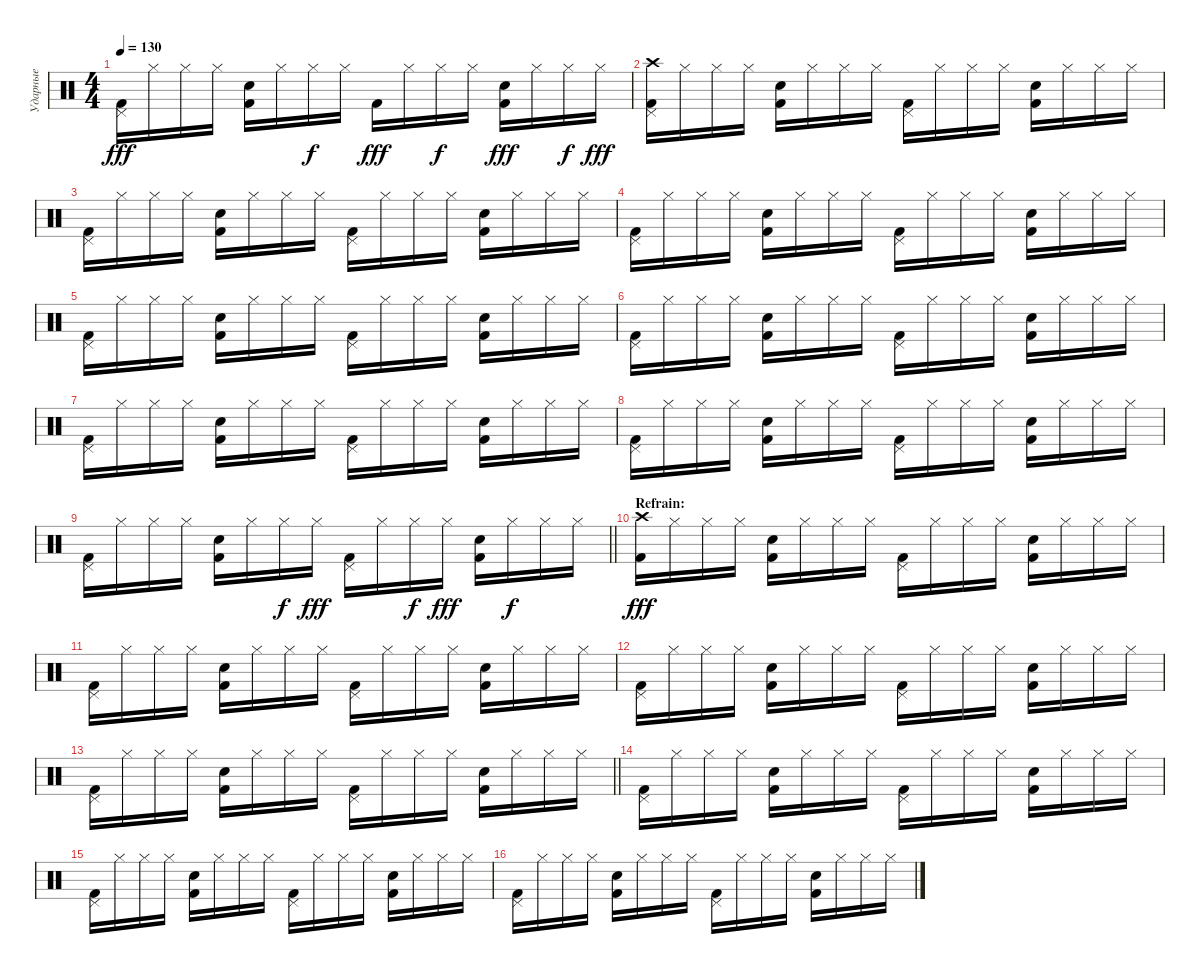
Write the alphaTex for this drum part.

\track ("Ударные" "Ударные") {instrument percussion}
\staff {score}
\articulation defaults
\ts (4 4)
\tempo 130
\clef neutral
\ks c
("Pedal Hi-Hat (hit)" "Kick (hit) 2").16{dy fff} "Hi-Hat (closed)".16 "Hi-Hat (closed)".16 "Hi-Hat (closed)".16 ("Snare (hit) 2" "Kick (hit) 2").16 "Hi-Hat (closed)".16 "Hi-Hat (closed)".16{dy f} "Hi-Hat (closed)".16 "Kick (hit) 2".16{dy fff} "Hi-Hat (closed)".16 "Hi-Hat (closed)".16{dy f} "Hi-Hat (closed)".16 ("Snare (hit) 2" "Kick (hit) 2").16{dy fff} "Hi-Hat (closed)".16 "Hi-Hat (closed)".16{dy f} "Hi-Hat (closed)".16{dy fff} |
("Pedal Hi-Hat (hit)" "Crash high (hit)" "Kick (hit) 2").16 "Hi-Hat (closed)".16 "Hi-Hat (closed)".16 "Hi-Hat (closed)".16 ("Snare (hit) 2" "Kick (hit) 2").16 "Hi-Hat (closed)".16 "Hi-Hat (closed)".16 "Hi-Hat (closed)".16 ("Pedal Hi-Hat (hit)" "Kick (hit) 2").16 "Hi-Hat (closed)".16 "Hi-Hat (closed)".16 "Hi-Hat (closed)".16 ("Snare (hit) 2" "Kick (hit) 2").16 "Hi-Hat (closed)".16 "Hi-Hat (closed)".16 "Hi-Hat (closed)".16 |
("Pedal Hi-Hat (hit)" "Kick (hit) 2").16 "Hi-Hat (closed)".16 "Hi-Hat (closed)".16 "Hi-Hat (closed)".16 ("Snare (hit) 2" "Kick (hit) 2").16 "Hi-Hat (closed)".16 "Hi-Hat (closed)".16 "Hi-Hat (closed)".16 ("Pedal Hi-Hat (hit)" "Kick (hit) 2").16 "Hi-Hat (closed)".16 "Hi-Hat (closed)".16 "Hi-Hat (closed)".16 ("Snare (hit) 2" "Kick (hit) 2").16 "Hi-Hat (closed)".16 "Hi-Hat (closed)".16 "Hi-Hat (closed)".16 |
("Pedal Hi-Hat (hit)" "Kick (hit) 2").16 "Hi-Hat (closed)".16 "Hi-Hat (closed)".16 "Hi-Hat (closed)".16 ("Snare (hit) 2" "Kick (hit) 2").16 "Hi-Hat (closed)".16 "Hi-Hat (closed)".16 "Hi-Hat (closed)".16 ("Pedal Hi-Hat (hit)" "Kick (hit) 2").16 "Hi-Hat (closed)".16 "Hi-Hat (closed)".16 "Hi-Hat (closed)".16 ("Snare (hit) 2" "Kick (hit) 2").16 "Hi-Hat (closed)".16 "Hi-Hat (closed)".16 "Hi-Hat (closed)".16 |
("Pedal Hi-Hat (hit)" "Kick (hit) 2").16 "Hi-Hat (closed)".16 "Hi-Hat (closed)".16 "Hi-Hat (closed)".16 ("Snare (hit) 2" "Kick (hit) 2").16 "Hi-Hat (closed)".16 "Hi-Hat (closed)".16 "Hi-Hat (closed)".16 ("Pedal Hi-Hat (hit)" "Kick (hit) 2").16 "Hi-Hat (closed)".16 "Hi-Hat (closed)".16 "Hi-Hat (closed)".16 ("Snare (hit) 2" "Kick (hit) 2").16 "Hi-Hat (closed)".16 "Hi-Hat (closed)".16 "Hi-Hat (closed)".16 |
("Pedal Hi-Hat (hit)" "Kick (hit) 2").16 "Hi-Hat (closed)".16 "Hi-Hat (closed)".16 "Hi-Hat (closed)".16 ("Snare (hit) 2" "Kick (hit) 2").16 "Hi-Hat (closed)".16 "Hi-Hat (closed)".16 "Hi-Hat (closed)".16 ("Pedal Hi-Hat (hit)" "Kick (hit) 2").16 "Hi-Hat (closed)".16 "Hi-Hat (closed)".16 "Hi-Hat (closed)".16 ("Snare (hit) 2" "Kick (hit) 2").16 "Hi-Hat (closed)".16 "Hi-Hat (closed)".16 "Hi-Hat (closed)".16 |
("Pedal Hi-Hat (hit)" "Kick (hit) 2").16 "Hi-Hat (closed)".16 "Hi-Hat (closed)".16 "Hi-Hat (closed)".16 ("Snare (hit) 2" "Kick (hit) 2").16 "Hi-Hat (closed)".16 "Hi-Hat (closed)".16 "Hi-Hat (closed)".16 ("Pedal Hi-Hat (hit)" "Kick (hit) 2").16 "Hi-Hat (closed)".16 "Hi-Hat (closed)".16 "Hi-Hat (closed)".16 ("Snare (hit) 2" "Kick (hit) 2").16 "Hi-Hat (closed)".16 "Hi-Hat (closed)".16 "Hi-Hat (closed)".16 |
("Pedal Hi-Hat (hit)" "Kick (hit) 2").16 "Hi-Hat (closed)".16 "Hi-Hat (closed)".16 "Hi-Hat (closed)".16 ("Snare (hit) 2" "Kick (hit) 2").16 "Hi-Hat (closed)".16 "Hi-Hat (closed)".16 "Hi-Hat (closed)".16 ("Pedal Hi-Hat (hit)" "Kick (hit) 2").16 "Hi-Hat (closed)".16 "Hi-Hat (closed)".16 "Hi-Hat (closed)".16 ("Snare (hit) 2" "Kick (hit) 2").16 "Hi-Hat (closed)".16 "Hi-Hat (closed)".16 "Hi-Hat (closed)".16 |
\barLineRight lightlight
("Pedal Hi-Hat (hit)" "Kick (hit) 2").16 "Hi-Hat (closed)".16 "Hi-Hat (closed)".16 "Hi-Hat (closed)".16 ("Snare (hit) 2" "Kick (hit) 2").16 "Hi-Hat (closed)".16 "Hi-Hat (closed)".16{dy f} "Hi-Hat (closed)".16{dy fff} ("Pedal Hi-Hat (hit)" "Kick (hit) 2").16 "Hi-Hat (closed)".16 "Hi-Hat (closed)".16{dy f} "Hi-Hat (closed)".16{dy fff} ("Snare (hit) 2" "Kick (hit) 2").16 "Hi-Hat (closed)".16{dy f} "Hi-Hat (closed)".16 "Hi-Hat (closed)".16 |
\section ("" "Refrain:")
("Crash high (hit)" "Kick (hit) 2").16{dy fff} "Hi-Hat (closed)".16 "Hi-Hat (closed)".16 "Hi-Hat (closed)".16 ("Snare (hit) 2" "Kick (hit) 2").16 "Hi-Hat (closed)".16 "Hi-Hat (closed)".16 "Hi-Hat (closed)".16 ("Pedal Hi-Hat (hit)" "Kick (hit) 2").16 "Hi-Hat (closed)".16 "Hi-Hat (closed)".16 "Hi-Hat (closed)".16 ("Snare (hit) 2" "Kick (hit) 2").16 "Hi-Hat (closed)".16 "Hi-Hat (closed)".16 "Hi-Hat (closed)".16 |
("Pedal Hi-Hat (hit)" "Kick (hit) 2").16 "Hi-Hat (closed)".16 "Hi-Hat (closed)".16 "Hi-Hat (closed)".16 ("Snare (hit) 2" "Kick (hit) 2").16 "Hi-Hat (closed)".16 "Hi-Hat (closed)".16 "Hi-Hat (closed)".16 ("Pedal Hi-Hat (hit)" "Kick (hit) 2").16 "Hi-Hat (closed)".16 "Hi-Hat (closed)".16 "Hi-Hat (closed)".16 ("Snare (hit) 2" "Kick (hit) 2").16 "Hi-Hat (closed)".16 "Hi-Hat (closed)".16 "Hi-Hat (closed)".16 |
("Pedal Hi-Hat (hit)" "Kick (hit) 2").16 "Hi-Hat (closed)".16 "Hi-Hat (closed)".16 "Hi-Hat (closed)".16 ("Snare (hit) 2" "Kick (hit) 2").16 "Hi-Hat (closed)".16 "Hi-Hat (closed)".16 "Hi-Hat (closed)".16 ("Pedal Hi-Hat (hit)" "Kick (hit) 2").16 "Hi-Hat (closed)".16 "Hi-Hat (closed)".16 "Hi-Hat (closed)".16 ("Snare (hit) 2" "Kick (hit) 2").16 "Hi-Hat (closed)".16 "Hi-Hat (closed)".16 "Hi-Hat (closed)".16 |
\barLineRight lightlight
("Pedal Hi-Hat (hit)" "Kick (hit) 2").16 "Hi-Hat (closed)".16 "Hi-Hat (closed)".16 "Hi-Hat (closed)".16 ("Snare (hit) 2" "Kick (hit) 2").16 "Hi-Hat (closed)".16 "Hi-Hat (closed)".16 "Hi-Hat (closed)".16 ("Pedal Hi-Hat (hit)" "Kick (hit) 2").16 "Hi-Hat (closed)".16 "Hi-Hat (closed)".16 "Hi-Hat (closed)".16 ("Snare (hit) 2" "Kick (hit) 2").16 "Hi-Hat (closed)".16 "Hi-Hat (closed)".16 "Hi-Hat (closed)".16 |
("Pedal Hi-Hat (hit)" "Kick (hit) 2").16 "Hi-Hat (closed)".16 "Hi-Hat (closed)".16 "Hi-Hat (closed)".16 ("Snare (hit) 2" "Kick (hit) 2").16 "Hi-Hat (closed)".16 "Hi-Hat (closed)".16 "Hi-Hat (closed)".16 ("Pedal Hi-Hat (hit)" "Kick (hit) 2").16 "Hi-Hat (closed)".16 "Hi-Hat (closed)".16 "Hi-Hat (closed)".16 ("Snare (hit) 2" "Kick (hit) 2").16 "Hi-Hat (closed)".16 "Hi-Hat (closed)".16 "Hi-Hat (closed)".16 |
("Pedal Hi-Hat (hit)" "Kick (hit) 2").16 "Hi-Hat (closed)".16 "Hi-Hat (closed)".16 "Hi-Hat (closed)".16 ("Snare (hit) 2" "Kick (hit) 2").16 "Hi-Hat (closed)".16 "Hi-Hat (closed)".16 "Hi-Hat (closed)".16 ("Pedal Hi-Hat (hit)" "Kick (hit) 2").16 "Hi-Hat (closed)".16 "Hi-Hat (closed)".16 "Hi-Hat (closed)".16 ("Snare (hit) 2" "Kick (hit) 2").16 "Hi-Hat (closed)".16 "Hi-Hat (closed)".16 "Hi-Hat (closed)".16 |
("Pedal Hi-Hat (hit)" "Kick (hit) 2").16 "Hi-Hat (closed)".16 "Hi-Hat (closed)".16 "Hi-Hat (closed)".16 ("Snare (hit) 2" "Kick (hit) 2").16 "Hi-Hat (closed)".16 "Hi-Hat (closed)".16 "Hi-Hat (closed)".16 ("Pedal Hi-Hat (hit)" "Kick (hit) 2").16 "Hi-Hat (closed)".16 "Hi-Hat (closed)".16 "Hi-Hat (closed)".16 ("Snare (hit) 2" "Kick (hit) 2").16 "Hi-Hat (closed)".16 "Hi-Hat (closed)".16 "Hi-Hat (closed)".16
